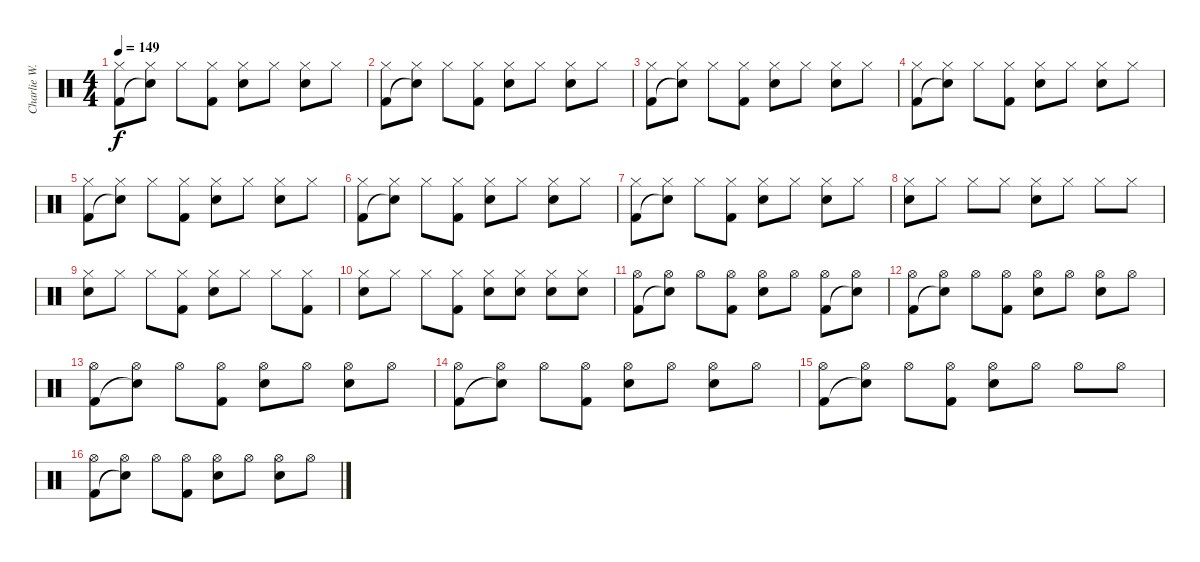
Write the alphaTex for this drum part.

\track ("Charlie W. drums" "Charlie W.") {instrument percussion}
\staff {score}
\articulation defaults
\ts (4 4)
\tempo 149
\clef neutral
\ks c
("Hi-Hat (closed)" "Kick (hit) 2").8{dy f} ("Hi-Hat (closed)" "Snare (hit)"{t}).8 "Hi-Hat (closed)".8 ("Hi-Hat (closed)" "Kick (hit) 2").8 ("Hi-Hat (closed)" "Snare (hit) 2").8 "Hi-Hat (closed)".8 ("Hi-Hat (closed)" "Snare (hit) 2").8 "Hi-Hat (closed)".8 |
("Hi-Hat (closed)" "Kick (hit) 2").8 ("Hi-Hat (closed)" "Snare (hit)"{t}).8 "Hi-Hat (closed)".8 ("Hi-Hat (closed)" "Kick (hit) 2").8 ("Hi-Hat (closed)" "Snare (hit) 2").8 "Hi-Hat (closed)".8 ("Hi-Hat (closed)" "Snare (hit) 2").8 "Hi-Hat (closed)".8 |
("Hi-Hat (closed)" "Kick (hit) 2").8 ("Hi-Hat (closed)" "Snare (hit)"{t}).8 "Hi-Hat (closed)".8 ("Hi-Hat (closed)" "Kick (hit) 2").8 ("Hi-Hat (closed)" "Snare (hit) 2").8 "Hi-Hat (closed)".8 ("Hi-Hat (closed)" "Snare (hit) 2").8 "Hi-Hat (closed)".8 |
("Hi-Hat (closed)" "Kick (hit) 2").8 ("Hi-Hat (closed)" "Snare (hit)"{t}).8 "Hi-Hat (closed)".8 ("Hi-Hat (closed)" "Kick (hit) 2").8 ("Hi-Hat (closed)" "Snare (hit) 2").8 "Hi-Hat (closed)".8 ("Hi-Hat (closed)" "Snare (hit) 2").8 "Hi-Hat (closed)".8 |
("Hi-Hat (closed)" "Kick (hit) 2").8 ("Hi-Hat (closed)" "Snare (hit)"{t}).8 "Hi-Hat (closed)".8 ("Hi-Hat (closed)" "Kick (hit) 2").8 ("Hi-Hat (closed)" "Snare (hit) 2").8 "Hi-Hat (closed)".8 ("Hi-Hat (closed)" "Snare (hit) 2").8 "Hi-Hat (closed)".8 |
("Hi-Hat (closed)" "Kick (hit) 2").8 ("Hi-Hat (closed)" "Snare (hit)"{t}).8 "Hi-Hat (closed)".8 ("Hi-Hat (closed)" "Kick (hit) 2").8 ("Hi-Hat (closed)" "Snare (hit) 2").8 "Hi-Hat (closed)".8 ("Hi-Hat (closed)" "Snare (hit) 2").8 "Hi-Hat (closed)".8 |
("Hi-Hat (closed)" "Kick (hit) 2").8 ("Hi-Hat (closed)" "Snare (hit)"{t}).8 "Hi-Hat (closed)".8 ("Hi-Hat (closed)" "Kick (hit) 2").8 ("Hi-Hat (closed)" "Snare (hit) 2").8 "Hi-Hat (closed)".8 ("Hi-Hat (closed)" "Snare (hit) 2").8 "Hi-Hat (closed)".8 |
("Hi-Hat (closed)" "Snare (hit) 2").8 "Hi-Hat (closed)".8 "Hi-Hat (closed)".8 "Hi-Hat (closed)".8 ("Hi-Hat (closed)" "Snare (hit) 2").8 "Hi-Hat (closed)".8 "Hi-Hat (closed)".8 "Hi-Hat (closed)".8 |
("Hi-Hat (closed)" "Snare (hit) 2").8 "Hi-Hat (closed)".8 "Hi-Hat (closed)".8 ("Hi-Hat (closed)" "Kick (hit) 2").8 ("Hi-Hat (closed)" "Snare (hit) 2").8 "Hi-Hat (closed)".8 "Hi-Hat (closed)".8 ("Hi-Hat (closed)" "Kick (hit) 2").8 |
("Hi-Hat (closed)" "Snare (hit) 2").8 "Hi-Hat (closed)".8 "Hi-Hat (closed)".8 ("Hi-Hat (closed)" "Kick (hit) 2").8 ("Hi-Hat (closed)" "Snare (hit) 2").8 ("Hi-Hat (closed)" "Snare (hit) 2").8 ("Hi-Hat (closed)" "Snare (hit) 2").8 ("Hi-Hat (closed)" "Snare (hit) 2").8 |
("Hi-Hat (open)" "Kick (hit) 2").8 ("Hi-Hat (open)" "Snare (hit)"{t}).8 "Hi-Hat (open)".8 ("Hi-Hat (open)" "Kick (hit) 2").8 ("Hi-Hat (open)" "Snare (hit) 2").8 "Hi-Hat (open)".8 ("Hi-Hat (open)" "Kick (hit) 2").8 ("Hi-Hat (open)" "Snare (hit)"{t}).8 |
("Hi-Hat (open)" "Kick (hit) 2").8 ("Hi-Hat (open)" "Snare (hit)"{t}).8 "Hi-Hat (open)".8 ("Hi-Hat (open)" "Kick (hit) 2").8 ("Hi-Hat (open)" "Snare (hit) 2").8 "Hi-Hat (open)".8 ("Hi-Hat (open)" "Snare (hit) 2").8 "Hi-Hat (open)".8 |
("Hi-Hat (open)" "Kick (hit) 2").8 ("Hi-Hat (open)" "Snare (hit)"{t}).8 "Hi-Hat (open)".8 ("Hi-Hat (open)" "Kick (hit) 2").8 ("Hi-Hat (open)" "Snare (hit) 2").8 "Hi-Hat (open)".8 ("Hi-Hat (open)" "Snare (hit) 2").8 "Hi-Hat (open)".8 |
("Hi-Hat (open)" "Kick (hit) 2").8 ("Hi-Hat (open)" "Snare (hit)"{t}).8 "Hi-Hat (open)".8 ("Hi-Hat (open)" "Kick (hit) 2").8 ("Hi-Hat (open)" "Snare (hit) 2").8 "Hi-Hat (open)".8 ("Hi-Hat (open)" "Snare (hit) 2").8 "Hi-Hat (open)".8 |
("Hi-Hat (open)" "Kick (hit) 2").8 ("Hi-Hat (open)" "Snare (hit)"{t}).8 "Hi-Hat (open)".8 ("Hi-Hat (open)" "Kick (hit) 2").8 ("Hi-Hat (open)" "Snare (hit) 2").8 "Hi-Hat (open)".8 "Hi-Hat (open)".8 "Hi-Hat (open)".8 |
("Hi-Hat (open)" "Kick (hit) 2").8 ("Hi-Hat (open)" "Snare (hit)"{t}).8 "Hi-Hat (open)".8 ("Hi-Hat (open)" "Kick (hit) 2").8 ("Hi-Hat (open)" "Snare (hit) 2").8 "Hi-Hat (open)".8 ("Hi-Hat (open)" "Snare (hit) 2").8 "Hi-Hat (open)".8
